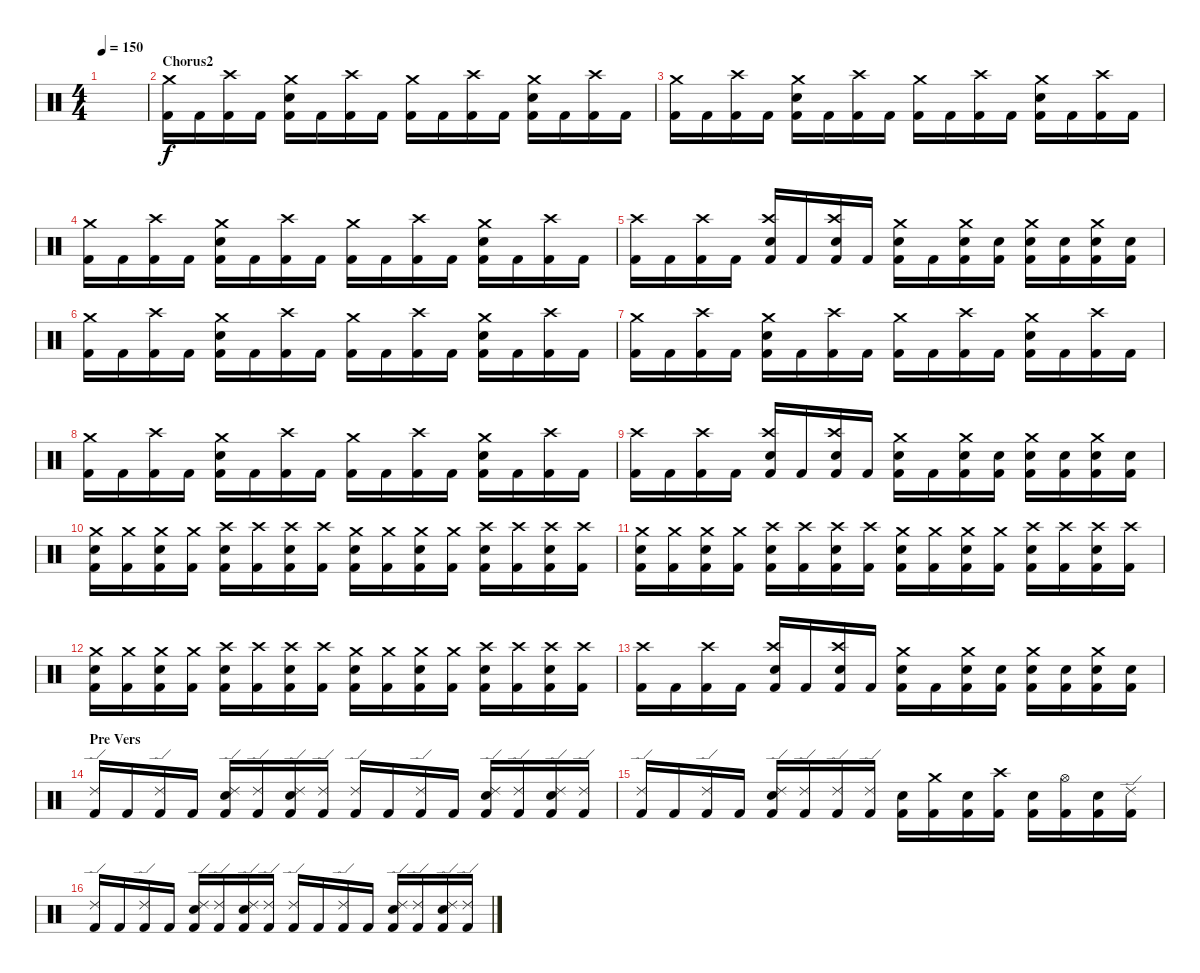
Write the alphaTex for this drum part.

\track "" {instrument percussion}
\staff {score}
\articulation defaults
\ts (4 4)
\tempo 150
\clef neutral
\ks c
|
\section ("" "Chorus2")
("Crash medium (hit)" "Kick (hit) 2").16 "Kick (hit) 2".16 ("Crash high (hit)" "Kick (hit) 2").16 "Kick (hit) 2".16 ("Crash medium (hit)" "Electric Snare (hit)" "Kick (hit) 2").16 "Kick (hit) 2".16 ("Crash high (hit)" "Kick (hit) 2").16 "Kick (hit) 2".16 ("Crash medium (hit)" "Kick (hit) 2").16 "Kick (hit) 2".16 ("Crash high (hit)" "Kick (hit) 2").16 "Kick (hit) 2".16 ("Crash medium (hit)" "Electric Snare (hit)" "Kick (hit) 2").16 "Kick (hit) 2".16 ("Crash high (hit)" "Kick (hit) 2").16 "Kick (hit) 2".16 |
("Crash medium (hit)" "Kick (hit) 2").16 "Kick (hit) 2".16 ("Crash high (hit)" "Kick (hit) 2").16 "Kick (hit) 2".16 ("Crash medium (hit)" "Electric Snare (hit)" "Kick (hit) 2").16 "Kick (hit) 2".16 ("Crash high (hit)" "Kick (hit) 2").16 "Kick (hit) 2".16 ("Crash medium (hit)" "Kick (hit) 2").16 "Kick (hit) 2".16 ("Crash high (hit)" "Kick (hit) 2").16 "Kick (hit) 2".16 ("Crash medium (hit)" "Electric Snare (hit)" "Kick (hit) 2").16 "Kick (hit) 2".16 ("Crash high (hit)" "Kick (hit) 2").16 "Kick (hit) 2".16 |
("Crash medium (hit)" "Kick (hit) 2").16 "Kick (hit) 2".16 ("Crash high (hit)" "Kick (hit) 2").16 "Kick (hit) 2".16 ("Crash medium (hit)" "Electric Snare (hit)" "Kick (hit) 2").16 "Kick (hit) 2".16 ("Crash high (hit)" "Kick (hit) 2").16 "Kick (hit) 2".16 ("Crash medium (hit)" "Kick (hit) 2").16 "Kick (hit) 2".16 ("Crash high (hit)" "Kick (hit) 2").16 "Kick (hit) 2".16 ("Crash medium (hit)" "Electric Snare (hit)" "Kick (hit) 2").16 "Kick (hit) 2".16 ("Crash high (hit)" "Kick (hit) 2").16 "Kick (hit) 2".16 |
("Crash high (hit)" "Kick (hit) 2").16 "Kick (hit) 2".16 ("Crash high (hit)" "Kick (hit) 2").16 "Kick (hit) 2".16 ("Crash high (hit)" "Electric Snare (hit)" "Kick (hit) 2").16 "Kick (hit) 2".16 ("Crash high (hit)" "Electric Snare (hit)" "Kick (hit) 2").16 "Kick (hit) 2".16 ("Crash medium (hit)" "Electric Snare (hit)" "Kick (hit) 2").16 "Kick (hit) 2".16 ("Crash medium (hit)" "Electric Snare (hit)" "Kick (hit) 2").16 ("Electric Snare (hit)" "Kick (hit) 2").16 ("Crash medium (hit)" "Electric Snare (hit)" "Kick (hit) 2").16 ("Electric Snare (hit)" "Kick (hit) 2").16 ("Crash medium (hit)" "Electric Snare (hit)" "Kick (hit) 2").16 ("Electric Snare (hit)" "Kick (hit) 2").16 |
("Crash medium (hit)" "Kick (hit) 2").16 "Kick (hit) 2".16 ("Crash high (hit)" "Kick (hit) 2").16 "Kick (hit) 2".16 ("Crash medium (hit)" "Electric Snare (hit)" "Kick (hit) 2").16 "Kick (hit) 2".16 ("Crash high (hit)" "Kick (hit) 2").16 "Kick (hit) 2".16 ("Crash medium (hit)" "Kick (hit) 2").16 "Kick (hit) 2".16 ("Crash high (hit)" "Kick (hit) 2").16 "Kick (hit) 2".16 ("Crash medium (hit)" "Electric Snare (hit)" "Kick (hit) 2").16 "Kick (hit) 2".16 ("Crash high (hit)" "Kick (hit) 2").16 "Kick (hit) 2".16 |
("Crash medium (hit)" "Kick (hit) 2").16 "Kick (hit) 2".16 ("Crash high (hit)" "Kick (hit) 2").16 "Kick (hit) 2".16 ("Crash medium (hit)" "Electric Snare (hit)" "Kick (hit) 2").16 "Kick (hit) 2".16 ("Crash high (hit)" "Kick (hit) 2").16 "Kick (hit) 2".16 ("Crash medium (hit)" "Kick (hit) 2").16 "Kick (hit) 2".16 ("Crash high (hit)" "Kick (hit) 2").16 "Kick (hit) 2".16 ("Crash medium (hit)" "Electric Snare (hit)" "Kick (hit) 2").16 "Kick (hit) 2".16 ("Crash high (hit)" "Kick (hit) 2").16 "Kick (hit) 2".16 |
("Crash medium (hit)" "Kick (hit) 2").16 "Kick (hit) 2".16 ("Crash high (hit)" "Kick (hit) 2").16 "Kick (hit) 2".16 ("Crash medium (hit)" "Electric Snare (hit)" "Kick (hit) 2").16 "Kick (hit) 2".16 ("Crash high (hit)" "Kick (hit) 2").16 "Kick (hit) 2".16 ("Crash medium (hit)" "Kick (hit) 2").16 "Kick (hit) 2".16 ("Crash high (hit)" "Kick (hit) 2").16 "Kick (hit) 2".16 ("Crash medium (hit)" "Electric Snare (hit)" "Kick (hit) 2").16 "Kick (hit) 2".16 ("Crash high (hit)" "Kick (hit) 2").16 "Kick (hit) 2".16 |
("Crash high (hit)" "Kick (hit) 2").16 "Kick (hit) 2".16 ("Crash high (hit)" "Kick (hit) 2").16 "Kick (hit) 2".16 ("Crash high (hit)" "Electric Snare (hit)" "Kick (hit) 2").16 "Kick (hit) 2".16 ("Crash high (hit)" "Electric Snare (hit)" "Kick (hit) 2").16 "Kick (hit) 2".16 ("Crash medium (hit)" "Electric Snare (hit)" "Kick (hit) 2").16 "Kick (hit) 2".16 ("Crash medium (hit)" "Electric Snare (hit)" "Kick (hit) 2").16 ("Electric Snare (hit)" "Kick (hit) 2").16 ("Crash medium (hit)" "Electric Snare (hit)" "Kick (hit) 2").16 ("Electric Snare (hit)" "Kick (hit) 2").16 ("Crash medium (hit)" "Electric Snare (hit)" "Kick (hit) 2").16 ("Electric Snare (hit)" "Kick (hit) 2").16 |
("Crash medium (hit)" "Electric Snare (hit)" "Kick (hit) 2").16 ("Crash medium (hit)" "Kick (hit) 2").16 ("Crash medium (hit)" "Electric Snare (hit)" "Kick (hit) 2").16 ("Crash medium (hit)" "Kick (hit) 2").16 ("Crash high (hit)" "Electric Snare (hit)" "Kick (hit) 2").16 ("Crash high (hit)" "Kick (hit) 2").16 ("Crash high (hit)" "Electric Snare (hit)" "Kick (hit) 2").16 ("Crash high (hit)" "Kick (hit) 2").16 ("Crash medium (hit)" "Electric Snare (hit)" "Kick (hit) 2").16 ("Crash medium (hit)" "Kick (hit) 2").16 ("Crash medium (hit)" "Electric Snare (hit)" "Kick (hit) 2").16 ("Crash medium (hit)" "Kick (hit) 2").16 ("Crash high (hit)" "Electric Snare (hit)" "Kick (hit) 2").16 ("Crash high (hit)" "Kick (hit) 2").16 ("Crash high (hit)" "Electric Snare (hit)" "Kick (hit) 2").16 ("Crash high (hit)" "Kick (hit) 2").16 |
("Crash medium (hit)" "Electric Snare (hit)" "Kick (hit) 2").16 ("Crash medium (hit)" "Kick (hit) 2").16 ("Crash medium (hit)" "Electric Snare (hit)" "Kick (hit) 2").16 ("Crash medium (hit)" "Kick (hit) 2").16 ("Crash high (hit)" "Electric Snare (hit)" "Kick (hit) 2").16 ("Crash high (hit)" "Kick (hit) 2").16 ("Crash high (hit)" "Electric Snare (hit)" "Kick (hit) 2").16 ("Crash high (hit)" "Kick (hit) 2").16 ("Crash medium (hit)" "Electric Snare (hit)" "Kick (hit) 2").16 ("Crash medium (hit)" "Kick (hit) 2").16 ("Crash medium (hit)" "Electric Snare (hit)" "Kick (hit) 2").16 ("Crash medium (hit)" "Kick (hit) 2").16 ("Crash high (hit)" "Electric Snare (hit)" "Kick (hit) 2").16 ("Crash high (hit)" "Kick (hit) 2").16 ("Crash high (hit)" "Electric Snare (hit)" "Kick (hit) 2").16 ("Crash high (hit)" "Kick (hit) 2").16 |
("Crash medium (hit)" "Electric Snare (hit)" "Kick (hit) 2").16 ("Crash medium (hit)" "Kick (hit) 2").16 ("Crash medium (hit)" "Electric Snare (hit)" "Kick (hit) 2").16 ("Crash medium (hit)" "Kick (hit) 2").16 ("Crash high (hit)" "Electric Snare (hit)" "Kick (hit) 2").16 ("Crash high (hit)" "Kick (hit) 2").16 ("Crash high (hit)" "Electric Snare (hit)" "Kick (hit) 2").16 ("Crash high (hit)" "Kick (hit) 2").16 ("Crash medium (hit)" "Electric Snare (hit)" "Kick (hit) 2").16 ("Crash medium (hit)" "Kick (hit) 2").16 ("Crash medium (hit)" "Electric Snare (hit)" "Kick (hit) 2").16 ("Crash medium (hit)" "Kick (hit) 2").16 ("Crash high (hit)" "Electric Snare (hit)" "Kick (hit) 2").16 ("Crash high (hit)" "Kick (hit) 2").16 ("Crash high (hit)" "Electric Snare (hit)" "Kick (hit) 2").16 ("Crash high (hit)" "Kick (hit) 2").16 |
("Crash high (hit)" "Kick (hit) 2").16 "Kick (hit) 2".16 ("Crash high (hit)" "Kick (hit) 2").16 "Kick (hit) 2".16 ("Crash high (hit)" "Electric Snare (hit)" "Kick (hit) 2").16 "Kick (hit) 2".16 ("Crash high (hit)" "Electric Snare (hit)" "Kick (hit) 2").16 "Kick (hit) 2".16 ("Crash medium (hit)" "Electric Snare (hit)" "Kick (hit) 2").16 "Kick (hit) 2".16 ("Crash medium (hit)" "Electric Snare (hit)" "Kick (hit) 2").16 ("Electric Snare (hit)" "Kick (hit) 2").16 ("Crash medium (hit)" "Electric Snare (hit)" "Kick (hit) 2").16 ("Electric Snare (hit)" "Kick (hit) 2").16 ("Crash medium (hit)" "Electric Snare (hit)" "Kick (hit) 2").16 ("Electric Snare (hit)" "Kick (hit) 2").16 |
\section ("" "Pre Vers")
("Ride (edge) 2" "Kick (hit) 2").16 "Kick (hit) 2".16 ("Ride (edge) 2" "Kick (hit) 2").16 "Kick (hit) 2".16 ("Ride (edge) 2" "Electric Snare (hit)" "Kick (hit) 2").16 ("Ride (edge) 2" "Kick (hit) 2").16 ("Ride (edge) 2" "Electric Snare (hit)" "Kick (hit) 2").16 ("Ride (edge) 2" "Kick (hit) 2").16 ("Ride (edge) 2" "Kick (hit) 2").16 "Kick (hit) 2".16 ("Ride (edge) 2" "Kick (hit) 2").16 "Kick (hit) 2".16 ("Ride (edge) 2" "Electric Snare (hit)" "Kick (hit) 2").16 ("Ride (edge) 2" "Kick (hit) 2").16 ("Ride (edge) 2" "Electric Snare (hit)" "Kick (hit) 2").16 ("Ride (edge) 2" "Kick (hit) 2").16 |
("Ride (edge) 2" "Kick (hit) 2").16 "Kick (hit) 2".16 ("Ride (edge) 2" "Kick (hit) 2").16 "Kick (hit) 2".16 ("Ride (edge) 2" "Electric Snare (hit)" "Kick (hit) 2").16 ("Ride (edge) 2" "Kick (hit) 2").16 ("Ride (edge) 2" "Kick (hit) 2").16 ("Ride (edge) 2" "Kick (hit) 2").16 ("Electric Snare (hit)" "Kick (hit) 2").16 ("Crash medium (hit)" "Kick (hit) 2").16 ("Electric Snare (hit)" "Kick (hit) 2").16 ("Crash high (hit)" "Kick (hit) 2").16 ("Electric Snare (hit)" "Kick (hit) 2").16 ("Hi-Hat (open)" "Kick (hit) 2").16 ("Electric Snare (hit)" "Kick (hit) 2").16 ("Ride (edge) 2" "Kick (hit) 2").16 |
("Ride (edge) 2" "Kick (hit) 2").16 "Kick (hit) 2".16 ("Ride (edge) 2" "Kick (hit) 2").16 "Kick (hit) 2".16 ("Ride (edge) 2" "Electric Snare (hit)" "Kick (hit) 2").16 ("Ride (edge) 2" "Kick (hit) 2").16 ("Ride (edge) 2" "Electric Snare (hit)" "Kick (hit) 2").16 ("Ride (edge) 2" "Kick (hit) 2").16 ("Ride (edge) 2" "Kick (hit) 2").16 "Kick (hit) 2".16 ("Ride (edge) 2" "Kick (hit) 2").16 "Kick (hit) 2".16 ("Ride (edge) 2" "Electric Snare (hit)" "Kick (hit) 2").16 ("Ride (edge) 2" "Kick (hit) 2").16 ("Ride (edge) 2" "Electric Snare (hit)" "Kick (hit) 2").16 ("Ride (edge) 2" "Kick (hit) 2").16
